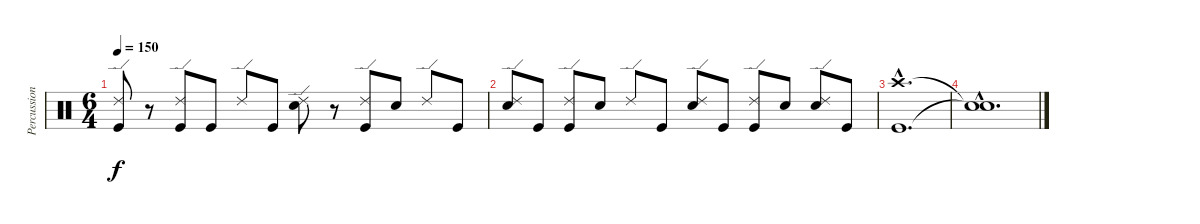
\track ("Percussion" "Percussion") {instrument percussion}
\staff {score}
\articulation defaults
\ts (6 4)
\tempo 150
\clef neutral
\ks c
("Ride (edge) 2" "Kick (hit)").8{dy f} r.8 ("Ride (edge) 2" "Kick (hit)").8 "Kick (hit)".8 "Ride (edge) 2".8 "Kick (hit)".8 ("Ride (edge) 2" "Snare (hit) 2").8 r.8 ("Ride (edge) 2" "Kick (hit)").8 "Snare (hit) 2".8 "Ride (edge) 2".8 "Kick (hit)".8 |
("Ride (edge) 2" "Snare (hit) 2").8 "Kick (hit)".8 ("Ride (edge) 2" "Kick (hit)").8 "Snare (hit) 2".8 "Ride (edge) 2".8 "Kick (hit)".8 ("Ride (edge) 2" "Snare (hit) 2").8 "Kick (hit)".8 ("Ride (edge) 2" "Kick (hit)").8 "Snare (hit) 2".8 ("Ride (edge) 2" "Snare (hit) 2").8 "Kick (hit)".8 |
("Crash high (hit)"{hac} "Kick (hit)"{hac}).1{d} |
("Snare (hit)"{hac t} "Snare (hit)"{hac t}).1{d}
